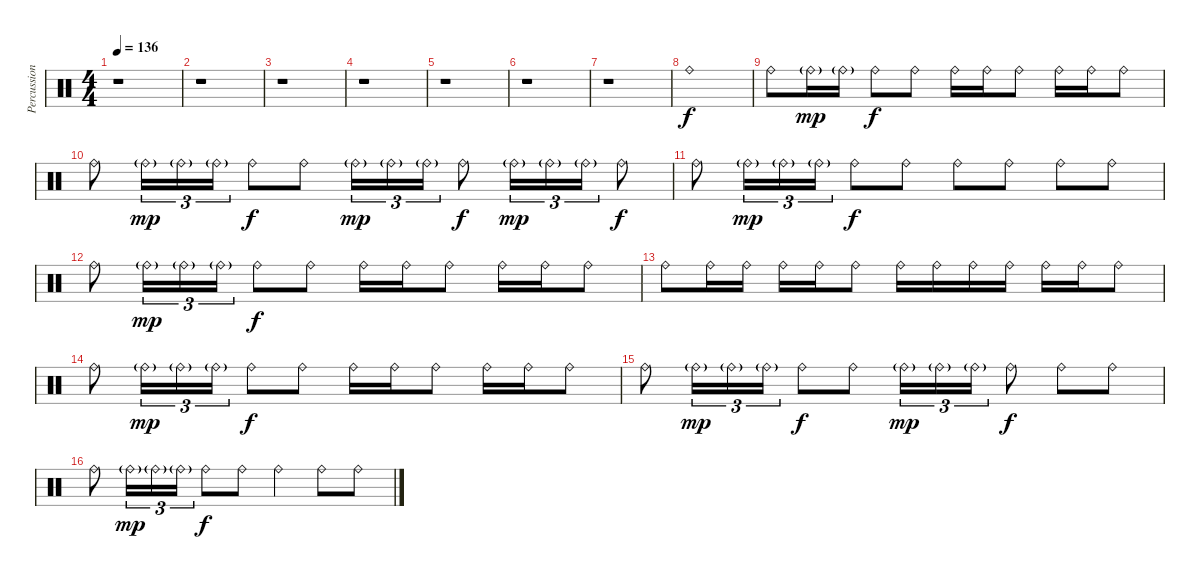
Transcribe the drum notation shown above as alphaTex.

\track ("Percussion" "Percussion") {instrument percussion}
\staff {score}
\articulation defaults
\ts (4 4)
\tempo 136
\clef neutral
\ks c
r.1{dy f} |
r.1 |
r.1 |
r.1 |
r.1 |
r.1 |
r.1 |
"Ride (bell)".1 |
"Ride (bell)".8 "Ride (bell)"{g}.16{dy mp} "Ride (bell)"{g}.16 "Ride (bell)".8{dy f} "Ride (bell)".8 "Ride (bell)".16 "Ride (bell)".16 "Ride (bell)".8 "Ride (bell)".16 "Ride (bell)".16 "Ride (bell)".8 |
"Ride (bell)".8 "Ride (bell)"{g}.16{tu (3 2) dy mp} "Ride (bell)"{g}.16{tu (3 2)} "Ride (bell)"{g}.16{tu (3 2)} "Ride (bell)".8{dy f} "Ride (bell)".8 "Ride (bell)"{g}.16{tu (3 2) dy mp} "Ride (bell)"{g}.16{tu (3 2)} "Ride (bell)"{g}.16{tu (3 2)} "Ride (bell)".8{dy f} "Ride (bell)"{g}.16{tu (3 2) dy mp} "Ride (bell)"{g}.16{tu (3 2)} "Ride (bell)"{g}.16{tu (3 2)} "Ride (bell)".8{dy f} |
"Ride (bell)".8 "Ride (bell)"{g}.16{tu (3 2) dy mp} "Ride (bell)"{g}.16{tu (3 2)} "Ride (bell)"{g}.16{tu (3 2)} "Ride (bell)".8{dy f} "Ride (bell)".8 "Ride (bell)".8 "Ride (bell)".8 "Ride (bell)".8 "Ride (bell)".8 |
"Ride (bell)".8 "Ride (bell)"{g}.16{tu (3 2) dy mp} "Ride (bell)"{g}.16{tu (3 2)} "Ride (bell)"{g}.16{tu (3 2)} "Ride (bell)".8{dy f} "Ride (bell)".8 "Ride (bell)".16 "Ride (bell)".16 "Ride (bell)".8 "Ride (bell)".16 "Ride (bell)".16 "Ride (bell)".8 |
"Ride (bell)".8 "Ride (bell)".16 "Ride (bell)".16 "Ride (bell)".16 "Ride (bell)".16 "Ride (bell)".8 "Ride (bell)".16 "Ride (bell)".16 "Ride (bell)".16 "Ride (bell)".16 "Ride (bell)".16 "Ride (bell)".16 "Ride (bell)".8 |
"Ride (bell)".8 "Ride (bell)"{g}.16{tu (3 2) dy mp} "Ride (bell)"{g}.16{tu (3 2)} "Ride (bell)"{g}.16{tu (3 2)} "Ride (bell)".8{dy f} "Ride (bell)".8 "Ride (bell)".16 "Ride (bell)".16 "Ride (bell)".8 "Ride (bell)".16 "Ride (bell)".16 "Ride (bell)".8 |
"Ride (bell)".8 "Ride (bell)"{g}.16{tu (3 2) dy mp} "Ride (bell)"{g}.16{tu (3 2)} "Ride (bell)"{g}.16{tu (3 2)} "Ride (bell)".8{dy f} "Ride (bell)".8 "Ride (bell)"{g}.16{tu (3 2) dy mp} "Ride (bell)"{g}.16{tu (3 2)} "Ride (bell)"{g}.16{tu (3 2)} "Ride (bell)".8{dy f} "Ride (bell)".8 "Ride (bell)".8 |
"Ride (bell)".8 "Ride (bell)"{g}.16{tu (3 2) dy mp} "Ride (bell)"{g}.16{tu (3 2)} "Ride (bell)"{g}.16{tu (3 2)} "Ride (bell)".8{dy f} "Ride (bell)".8 "Ride (bell)".4 "Ride (bell)".8 "Ride (bell)".8
